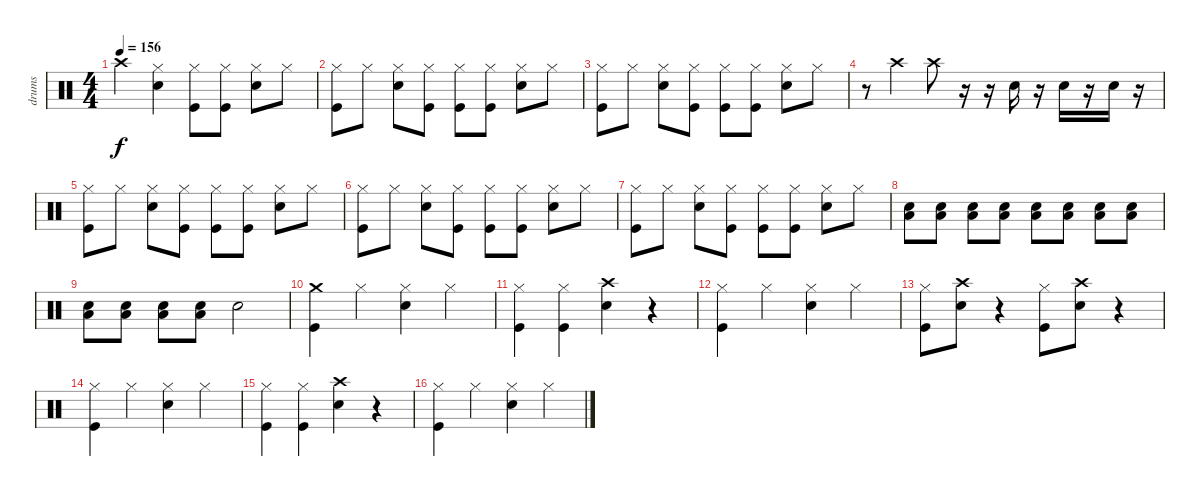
\track ("drums" "drums") {instrument percussion}
\staff {score}
\articulation defaults
\ts (4 4)
\tempo 156
\clef neutral
\ks c "Crash high (hit)".4{dy f}
("Hi-Hat (closed)" "Snare (hit) 2").4 ("Hi-Hat (closed)" "Kick (hit)").8 ("Hi-Hat (closed)" "Kick (hit)").8 ("Hi-Hat (closed)" "Snare (hit) 2").8 "Hi-Hat (closed)".8 |
("Hi-Hat (closed)" "Kick (hit)").8 "Hi-Hat (closed)".8 ("Hi-Hat (closed)" "Snare (hit) 2").8 ("Hi-Hat (closed)" "Kick (hit)").8 ("Hi-Hat (closed)" "Kick (hit)").8 ("Hi-Hat (closed)" "Kick (hit)").8 ("Hi-Hat (closed)" "Snare (hit) 2").8 "Hi-Hat (closed)".8 |
("Hi-Hat (closed)" "Kick (hit)").8 "Hi-Hat (closed)".8 ("Hi-Hat (closed)" "Snare (hit) 2").8 ("Hi-Hat (closed)" "Kick (hit)").8 ("Hi-Hat (closed)" "Kick (hit)").8 ("Hi-Hat (closed)" "Kick (hit)").8 ("Hi-Hat (closed)" "Snare (hit) 2").8 "Hi-Hat (closed)".8 |
r.8 "Crash high (hit)".4 "Crash high (hit)".8 r.16 r.16 "Snare (hit) 2".16 r.16 "Snare (hit) 2".16 r.16 "Snare (hit) 2".16 r.16 |
("Hi-Hat (closed)" "Kick (hit)").8 "Hi-Hat (closed)".8 ("Hi-Hat (closed)" "Snare (hit) 2").8 ("Hi-Hat (closed)" "Kick (hit)").8 ("Hi-Hat (closed)" "Kick (hit)").8 ("Hi-Hat (closed)" "Kick (hit)").8 ("Hi-Hat (closed)" "Snare (hit) 2").8 "Hi-Hat (closed)".8 |
("Hi-Hat (closed)" "Kick (hit)").8 "Hi-Hat (closed)".8 ("Hi-Hat (closed)" "Snare (hit) 2").8 ("Hi-Hat (closed)" "Kick (hit)").8 ("Hi-Hat (closed)" "Kick (hit)").8 ("Hi-Hat (closed)" "Kick (hit)").8 ("Hi-Hat (closed)" "Snare (hit) 2").8 "Hi-Hat (closed)".8 |
("Hi-Hat (closed)" "Kick (hit)").8 "Hi-Hat (closed)".8 ("Hi-Hat (closed)" "Snare (hit) 2").8 ("Hi-Hat (closed)" "Kick (hit)").8 ("Hi-Hat (closed)" "Kick (hit)").8 ("Hi-Hat (closed)" "Kick (hit)").8 ("Hi-Hat (closed)" "Snare (hit) 2").8 "Hi-Hat (closed)".8 |
("Low Tom (hit)" "Snare (hit) 2").8 ("Low Tom (hit)" "Snare (hit) 2").8 ("Low Tom (hit)" "Snare (hit) 2").8 ("Low Tom (hit)" "Snare (hit) 2").8 ("Low Tom (hit)" "Snare (hit) 2").8 ("Low Tom (hit)" "Snare (hit) 2").8 ("Low Tom (hit)" "Snare (hit) 2").8 ("Low Tom (hit)" "Snare (hit) 2").8 |
("Low Tom (hit)" "Snare (hit) 2").8 ("Low Tom (hit)" "Snare (hit) 2").8 ("Low Tom (hit)" "Snare (hit) 2").8 ("Low Tom (hit)" "Snare (hit) 2").8 "Snare (hit) 2".2 |
("Crash medium (hit)" "Kick (hit)").4 "Hi-Hat (closed)".4 ("Hi-Hat (closed)" "Snare (hit) 2").4 "Hi-Hat (closed)".4 |
("Hi-Hat (closed)" "Kick (hit)").4 ("Hi-Hat (closed)" "Kick (hit)").4 ("Crash high (hit)" "Snare (hit) 2").4 r.4 |
("Hi-Hat (closed)" "Kick (hit)").4 "Hi-Hat (closed)".4 ("Hi-Hat (closed)" "Snare (hit) 2").4 "Hi-Hat (closed)".4 |
("Hi-Hat (closed)" "Kick (hit)").8 ("Crash high (hit)" "Snare (hit) 2").8 r.4 ("Hi-Hat (closed)" "Kick (hit)").8 ("Crash high (hit)" "Snare (hit) 2").8 r.4 |
("Hi-Hat (closed)" "Kick (hit)").4 "Hi-Hat (closed)".4 ("Hi-Hat (closed)" "Snare (hit) 2").4 "Hi-Hat (closed)".4 |
("Hi-Hat (closed)" "Kick (hit)").4 ("Hi-Hat (closed)" "Kick (hit)").4 ("Crash high (hit)" "Snare (hit) 2").4 r.4 |
("Hi-Hat (closed)" "Kick (hit)").4 "Hi-Hat (closed)".4 ("Hi-Hat (closed)" "Snare (hit) 2").4 "Hi-Hat (closed)".4
